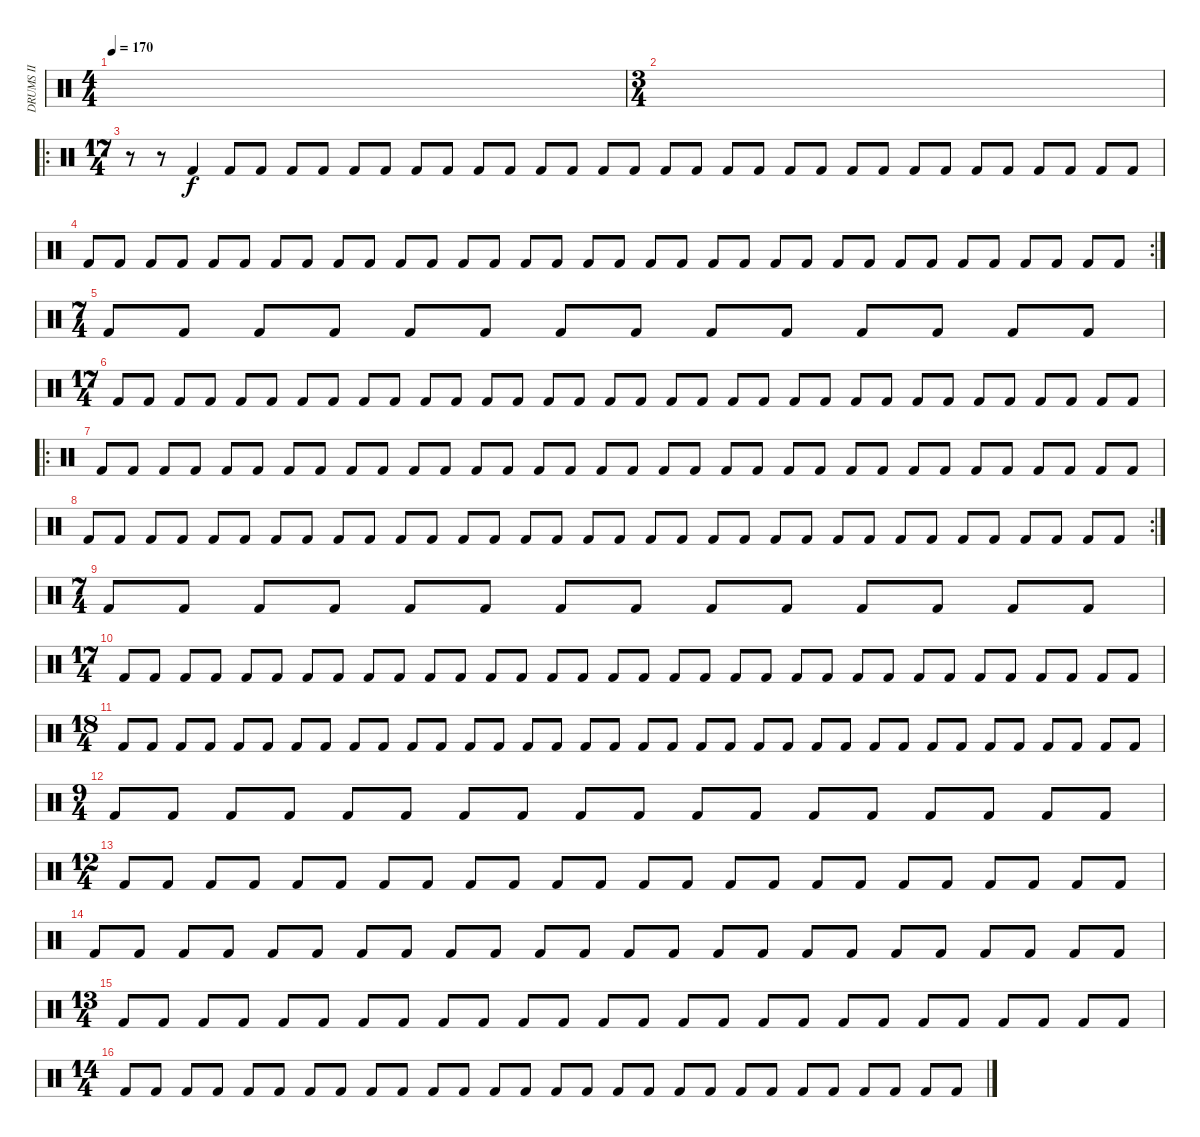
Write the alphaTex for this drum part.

\track ("DRUMS II" "DRUMS II") {instrument percussion}
\staff {score}
\articulation defaults
\ts (4 4)
\tempo 170
\clef neutral
\ks c
|
\ts (3 4)
|
\ro
\ts (17 4)
r.8 r.8 "Kick (hit) 2".4 "Kick (hit) 2".8 "Kick (hit) 2".8 "Kick (hit) 2".8 "Kick (hit) 2".8 "Kick (hit) 2".8 "Kick (hit) 2".8 "Kick (hit) 2".8 "Kick (hit) 2".8 "Kick (hit) 2".8 "Kick (hit) 2".8 "Kick (hit) 2".8 "Kick (hit) 2".8 "Kick (hit) 2".8 "Kick (hit) 2".8 "Kick (hit) 2".8 "Kick (hit) 2".8 "Kick (hit) 2".8 "Kick (hit) 2".8 "Kick (hit) 2".8 "Kick (hit) 2".8 "Kick (hit) 2".8 "Kick (hit) 2".8 "Kick (hit) 2".8 "Kick (hit) 2".8 "Kick (hit) 2".8 "Kick (hit) 2".8 "Kick (hit) 2".8 "Kick (hit) 2".8 "Kick (hit) 2".8 "Kick (hit) 2".8 |
\rc 2 "Kick (hit) 2".8 "Kick (hit) 2".8 "Kick (hit) 2".8 "Kick (hit) 2".8 "Kick (hit) 2".8 "Kick (hit) 2".8 "Kick (hit) 2".8 "Kick (hit) 2".8 "Kick (hit) 2".8 "Kick (hit) 2".8 "Kick (hit) 2".8 "Kick (hit) 2".8 "Kick (hit) 2".8 "Kick (hit) 2".8 "Kick (hit) 2".8 "Kick (hit) 2".8 "Kick (hit) 2".8 "Kick (hit) 2".8 "Kick (hit) 2".8 "Kick (hit) 2".8 "Kick (hit) 2".8 "Kick (hit) 2".8 "Kick (hit) 2".8 "Kick (hit) 2".8 "Kick (hit) 2".8 "Kick (hit) 2".8 "Kick (hit) 2".8 "Kick (hit) 2".8 "Kick (hit) 2".8 "Kick (hit) 2".8 "Kick (hit) 2".8 "Kick (hit) 2".8 "Kick (hit) 2".8 "Kick (hit) 2".8
|
\ts (7 4)
"Kick (hit) 2".8 "Kick (hit) 2".8 "Kick (hit) 2".8 "Kick (hit) 2".8 "Kick (hit) 2".8 "Kick (hit) 2".8 "Kick (hit) 2".8 "Kick (hit) 2".8 "Kick (hit) 2".8 "Kick (hit) 2".8 "Kick (hit) 2".8 "Kick (hit) 2".8 "Kick (hit) 2".8 "Kick (hit) 2".8 |
\ts (17 4)
"Kick (hit) 2".8 "Kick (hit) 2".8 "Kick (hit) 2".8 "Kick (hit) 2".8 "Kick (hit) 2".8 "Kick (hit) 2".8 "Kick (hit) 2".8 "Kick (hit) 2".8 "Kick (hit) 2".8 "Kick (hit) 2".8 "Kick (hit) 2".8 "Kick (hit) 2".8 "Kick (hit) 2".8 "Kick (hit) 2".8 "Kick (hit) 2".8 "Kick (hit) 2".8 "Kick (hit) 2".8 "Kick (hit) 2".8 "Kick (hit) 2".8 "Kick (hit) 2".8 "Kick (hit) 2".8 "Kick (hit) 2".8 "Kick (hit) 2".8 "Kick (hit) 2".8 "Kick (hit) 2".8 "Kick (hit) 2".8 "Kick (hit) 2".8 "Kick (hit) 2".8 "Kick (hit) 2".8 "Kick (hit) 2".8 "Kick (hit) 2".8 "Kick (hit) 2".8 "Kick (hit) 2".8 "Kick (hit) 2".8 |
\ro "Kick (hit) 2".8 "Kick (hit) 2".8 "Kick (hit) 2".8 "Kick (hit) 2".8 "Kick (hit) 2".8 "Kick (hit) 2".8 "Kick (hit) 2".8 "Kick (hit) 2".8 "Kick (hit) 2".8 "Kick (hit) 2".8 "Kick (hit) 2".8 "Kick (hit) 2".8 "Kick (hit) 2".8 "Kick (hit) 2".8 "Kick (hit) 2".8 "Kick (hit) 2".8 "Kick (hit) 2".8 "Kick (hit) 2".8 "Kick (hit) 2".8 "Kick (hit) 2".8 "Kick (hit) 2".8 "Kick (hit) 2".8 "Kick (hit) 2".8 "Kick (hit) 2".8 "Kick (hit) 2".8 "Kick (hit) 2".8 "Kick (hit) 2".8 "Kick (hit) 2".8 "Kick (hit) 2".8 "Kick (hit) 2".8 "Kick (hit) 2".8 "Kick (hit) 2".8 "Kick (hit) 2".8 "Kick (hit) 2".8
|
\rc 2 "Kick (hit) 2".8 "Kick (hit) 2".8 "Kick (hit) 2".8 "Kick (hit) 2".8 "Kick (hit) 2".8 "Kick (hit) 2".8 "Kick (hit) 2".8 "Kick (hit) 2".8 "Kick (hit) 2".8 "Kick (hit) 2".8 "Kick (hit) 2".8 "Kick (hit) 2".8 "Kick (hit) 2".8 "Kick (hit) 2".8 "Kick (hit) 2".8 "Kick (hit) 2".8 "Kick (hit) 2".8 "Kick (hit) 2".8 "Kick (hit) 2".8 "Kick (hit) 2".8 "Kick (hit) 2".8 "Kick (hit) 2".8 "Kick (hit) 2".8 "Kick (hit) 2".8 "Kick (hit) 2".8 "Kick (hit) 2".8 "Kick (hit) 2".8 "Kick (hit) 2".8 "Kick (hit) 2".8 "Kick (hit) 2".8 "Kick (hit) 2".8 "Kick (hit) 2".8 "Kick (hit) 2".8 "Kick (hit) 2".8
|
\ts (7 4)
"Kick (hit) 2".8 "Kick (hit) 2".8 "Kick (hit) 2".8 "Kick (hit) 2".8 "Kick (hit) 2".8 "Kick (hit) 2".8 "Kick (hit) 2".8 "Kick (hit) 2".8 "Kick (hit) 2".8 "Kick (hit) 2".8 "Kick (hit) 2".8 "Kick (hit) 2".8 "Kick (hit) 2".8 "Kick (hit) 2".8 |
\ts (17 4)
"Kick (hit) 2".8 "Kick (hit) 2".8 "Kick (hit) 2".8 "Kick (hit) 2".8 "Kick (hit) 2".8 "Kick (hit) 2".8 "Kick (hit) 2".8 "Kick (hit) 2".8 "Kick (hit) 2".8 "Kick (hit) 2".8 "Kick (hit) 2".8 "Kick (hit) 2".8 "Kick (hit) 2".8 "Kick (hit) 2".8 "Kick (hit) 2".8 "Kick (hit) 2".8 "Kick (hit) 2".8 "Kick (hit) 2".8 "Kick (hit) 2".8 "Kick (hit) 2".8 "Kick (hit) 2".8 "Kick (hit) 2".8 "Kick (hit) 2".8 "Kick (hit) 2".8 "Kick (hit) 2".8 "Kick (hit) 2".8 "Kick (hit) 2".8 "Kick (hit) 2".8 "Kick (hit) 2".8 "Kick (hit) 2".8 "Kick (hit) 2".8 "Kick (hit) 2".8 "Kick (hit) 2".8 "Kick (hit) 2".8 |
\ts (18 4)
"Kick (hit) 2".8 "Kick (hit) 2".8 "Kick (hit) 2".8 "Kick (hit) 2".8 "Kick (hit) 2".8 "Kick (hit) 2".8 "Kick (hit) 2".8 "Kick (hit) 2".8 "Kick (hit) 2".8 "Kick (hit) 2".8 "Kick (hit) 2".8 "Kick (hit) 2".8 "Kick (hit) 2".8 "Kick (hit) 2".8 "Kick (hit) 2".8 "Kick (hit) 2".8 "Kick (hit) 2".8 "Kick (hit) 2".8 "Kick (hit) 2".8 "Kick (hit) 2".8 "Kick (hit) 2".8 "Kick (hit) 2".8 "Kick (hit) 2".8 "Kick (hit) 2".8 "Kick (hit) 2".8 "Kick (hit) 2".8 "Kick (hit) 2".8 "Kick (hit) 2".8 "Kick (hit) 2".8 "Kick (hit) 2".8 "Kick (hit) 2".8 "Kick (hit) 2".8 "Kick (hit) 2".8 "Kick (hit) 2".8 "Kick (hit) 2".8 "Kick (hit) 2".8 |
\ts (9 4)
"Kick (hit) 2".8 "Kick (hit) 2".8 "Kick (hit) 2".8 "Kick (hit) 2".8 "Kick (hit) 2".8 "Kick (hit) 2".8 "Kick (hit) 2".8 "Kick (hit) 2".8 "Kick (hit) 2".8 "Kick (hit) 2".8 "Kick (hit) 2".8 "Kick (hit) 2".8 "Kick (hit) 2".8 "Kick (hit) 2".8 "Kick (hit) 2".8 "Kick (hit) 2".8 "Kick (hit) 2".8 "Kick (hit) 2".8 |
\ts (12 4)
"Kick (hit) 2".8 "Kick (hit) 2".8 "Kick (hit) 2".8 "Kick (hit) 2".8 "Kick (hit) 2".8 "Kick (hit) 2".8 "Kick (hit) 2".8 "Kick (hit) 2".8 "Kick (hit) 2".8 "Kick (hit) 2".8 "Kick (hit) 2".8 "Kick (hit) 2".8 "Kick (hit) 2".8 "Kick (hit) 2".8 "Kick (hit) 2".8 "Kick (hit) 2".8 "Kick (hit) 2".8 "Kick (hit) 2".8 "Kick (hit) 2".8 "Kick (hit) 2".8 "Kick (hit) 2".8 "Kick (hit) 2".8 "Kick (hit) 2".8 "Kick (hit) 2".8 |
"Kick (hit) 2".8 "Kick (hit) 2".8 "Kick (hit) 2".8 "Kick (hit) 2".8 "Kick (hit) 2".8 "Kick (hit) 2".8 "Kick (hit) 2".8 "Kick (hit) 2".8 "Kick (hit) 2".8 "Kick (hit) 2".8 "Kick (hit) 2".8 "Kick (hit) 2".8 "Kick (hit) 2".8 "Kick (hit) 2".8 "Kick (hit) 2".8 "Kick (hit) 2".8 "Kick (hit) 2".8 "Kick (hit) 2".8 "Kick (hit) 2".8 "Kick (hit) 2".8 "Kick (hit) 2".8 "Kick (hit) 2".8 "Kick (hit) 2".8 "Kick (hit) 2".8 |
\ts (13 4)
"Kick (hit) 2".8 "Kick (hit) 2".8 "Kick (hit) 2".8 "Kick (hit) 2".8 "Kick (hit) 2".8 "Kick (hit) 2".8 "Kick (hit) 2".8 "Kick (hit) 2".8 "Kick (hit) 2".8 "Kick (hit) 2".8 "Kick (hit) 2".8 "Kick (hit) 2".8 "Kick (hit) 2".8 "Kick (hit) 2".8 "Kick (hit) 2".8 "Kick (hit) 2".8 "Kick (hit) 2".8 "Kick (hit) 2".8 "Kick (hit) 2".8 "Kick (hit) 2".8 "Kick (hit) 2".8 "Kick (hit) 2".8 "Kick (hit) 2".8 "Kick (hit) 2".8 "Kick (hit) 2".8 "Kick (hit) 2".8 |
\ts (14 4)
"Kick (hit) 2".8 "Kick (hit) 2".8 "Kick (hit) 2".8 "Kick (hit) 2".8 "Kick (hit) 2".8 "Kick (hit) 2".8 "Kick (hit) 2".8 "Kick (hit) 2".8 "Kick (hit) 2".8 "Kick (hit) 2".8 "Kick (hit) 2".8 "Kick (hit) 2".8 "Kick (hit) 2".8 "Kick (hit) 2".8 "Kick (hit) 2".8 "Kick (hit) 2".8 "Kick (hit) 2".8 "Kick (hit) 2".8 "Kick (hit) 2".8 "Kick (hit) 2".8 "Kick (hit) 2".8 "Kick (hit) 2".8 "Kick (hit) 2".8 "Kick (hit) 2".8 "Kick (hit) 2".8 "Kick (hit) 2".8 "Kick (hit) 2".8 "Kick (hit) 2".8
